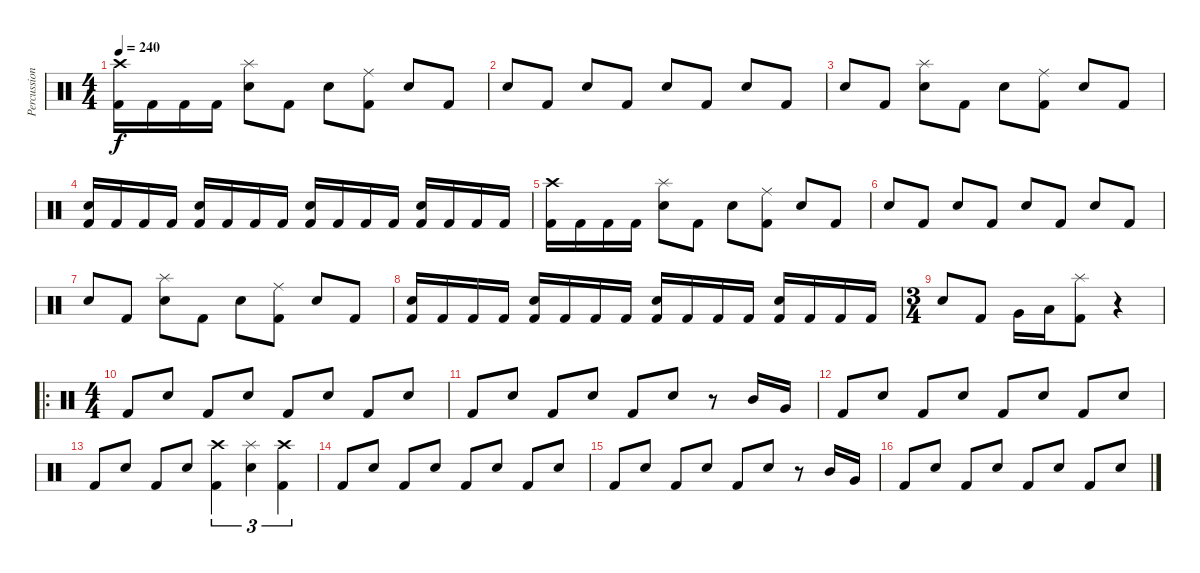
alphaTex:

\track ("Percussion" "Percussion") {instrument percussion}
\staff {score}
\articulation defaults
\ts (4 4)
\tempo 240
\clef neutral
\ks c
("Kick (hit) 2" "Crash high (hit)").16{dy f} "Kick (hit) 2".16 "Kick (hit) 2".16 "Kick (hit) 2".16 ("Electric Snare (hit)" "Splash (hit)").8 "Kick (hit) 2".8 "Electric Snare (hit)".8 ("Kick (hit) 2" "Ride (middle)").8 "Electric Snare (hit)".8 "Kick (hit) 2".8 |
"Electric Snare (hit)".8 "Kick (hit) 2".8 "Electric Snare (hit)".8 "Kick (hit) 2".8 "Electric Snare (hit)".8 "Kick (hit) 2".8 "Electric Snare (hit)".8 "Kick (hit) 2".8 |
"Electric Snare (hit)".8 "Kick (hit) 2".8 ("Electric Snare (hit)" "Splash (hit)").8 "Kick (hit) 2".8 "Electric Snare (hit)".8 ("Kick (hit) 2" "Ride (middle)").8 "Electric Snare (hit)".8 "Kick (hit) 2".8 |
("Kick (hit) 2" "Electric Snare (hit)").16 "Kick (hit) 2".16 "Kick (hit) 2".16 "Kick (hit) 2".16 ("Kick (hit) 2" "Electric Snare (hit)").16 "Kick (hit) 2".16 "Kick (hit) 2".16 "Kick (hit) 2".16 ("Kick (hit) 2" "Electric Snare (hit)").16 "Kick (hit) 2".16 "Kick (hit) 2".16 "Kick (hit) 2".16 ("Kick (hit) 2" "Electric Snare (hit)").16 "Kick (hit) 2".16 "Kick (hit) 2".16 "Kick (hit) 2".16 |
("Kick (hit) 2" "Crash high (hit)").16 "Kick (hit) 2".16 "Kick (hit) 2".16 "Kick (hit) 2".16 ("Electric Snare (hit)" "Splash (hit)").8 "Kick (hit) 2".8 "Electric Snare (hit)".8 ("Kick (hit) 2" "Ride (middle)").8 "Electric Snare (hit)".8 "Kick (hit) 2".8 |
"Electric Snare (hit)".8 "Kick (hit) 2".8 "Electric Snare (hit)".8 "Kick (hit) 2".8 "Electric Snare (hit)".8 "Kick (hit) 2".8 "Electric Snare (hit)".8 "Kick (hit) 2".8 |
"Electric Snare (hit)".8 "Kick (hit) 2".8 ("Electric Snare (hit)" "Splash (hit)").8 "Kick (hit) 2".8 "Electric Snare (hit)".8 ("Kick (hit) 2" "Ride (middle)").8 "Electric Snare (hit)".8 "Kick (hit) 2".8 |
("Kick (hit) 2" "Electric Snare (hit)").16 "Kick (hit) 2".16 "Kick (hit) 2".16 "Kick (hit) 2".16 ("Kick (hit) 2" "Electric Snare (hit)").16 "Kick (hit) 2".16 "Kick (hit) 2".16 "Kick (hit) 2".16 ("Kick (hit) 2" "Electric Snare (hit)").16 "Kick (hit) 2".16 "Kick (hit) 2".16 "Kick (hit) 2".16 ("Kick (hit) 2" "Electric Snare (hit)").16 "Kick (hit) 2".16 "Kick (hit) 2".16 "Kick (hit) 2".16 |
\ts (3 4)
"Electric Snare (hit)".8 "Kick (hit) 2".8 "Very Low Tom (hit)".16 "Low Floor Tom (hit)".16 ("Kick (hit) 2" "Splash (hit)").8 r.4 |
\ro
\ts (4 4)
"Kick (hit) 2".8 "Electric Snare (hit)".8 "Kick (hit) 2".8 "Electric Snare (hit)".8 "Kick (hit) 2".8 "Electric Snare (hit)".8 "Kick (hit) 2".8 "Electric Snare (hit)".8 |
"Kick (hit) 2".8 "Electric Snare (hit)".8 "Kick (hit) 2".8 "Electric Snare (hit)".8 "Kick (hit) 2".8 "Electric Snare (hit)".8 r.8 "Mid Tom (hit)".16 "Very Low Tom (hit)".16 |
"Kick (hit) 2".8 "Electric Snare (hit)".8 "Kick (hit) 2".8 "Electric Snare (hit)".8 "Kick (hit) 2".8 "Electric Snare (hit)".8 "Kick (hit) 2".8 "Electric Snare (hit)".8 |
"Kick (hit) 2".8 "Electric Snare (hit)".8 "Kick (hit) 2".8 "Electric Snare (hit)".8 ("Kick (hit) 2" "Crash high (hit)").4{tu (3 2)} ("Electric Snare (hit)" "Splash (hit)").4{tu (3 2)} ("Kick (hit) 2" "Crash high (hit)").4{tu (3 2)} |
"Kick (hit) 2".8 "Electric Snare (hit)".8 "Kick (hit) 2".8 "Electric Snare (hit)".8 "Kick (hit) 2".8 "Electric Snare (hit)".8 "Kick (hit) 2".8 "Electric Snare (hit)".8 |
"Kick (hit) 2".8 "Electric Snare (hit)".8 "Kick (hit) 2".8 "Electric Snare (hit)".8 "Kick (hit) 2".8 "Electric Snare (hit)".8 r.8 "Mid Tom (hit)".16 "Very Low Tom (hit)".16 |
"Kick (hit) 2".8 "Electric Snare (hit)".8 "Kick (hit) 2".8 "Electric Snare (hit)".8 "Kick (hit) 2".8 "Electric Snare (hit)".8 "Kick (hit) 2".8 "Electric Snare (hit)".8
